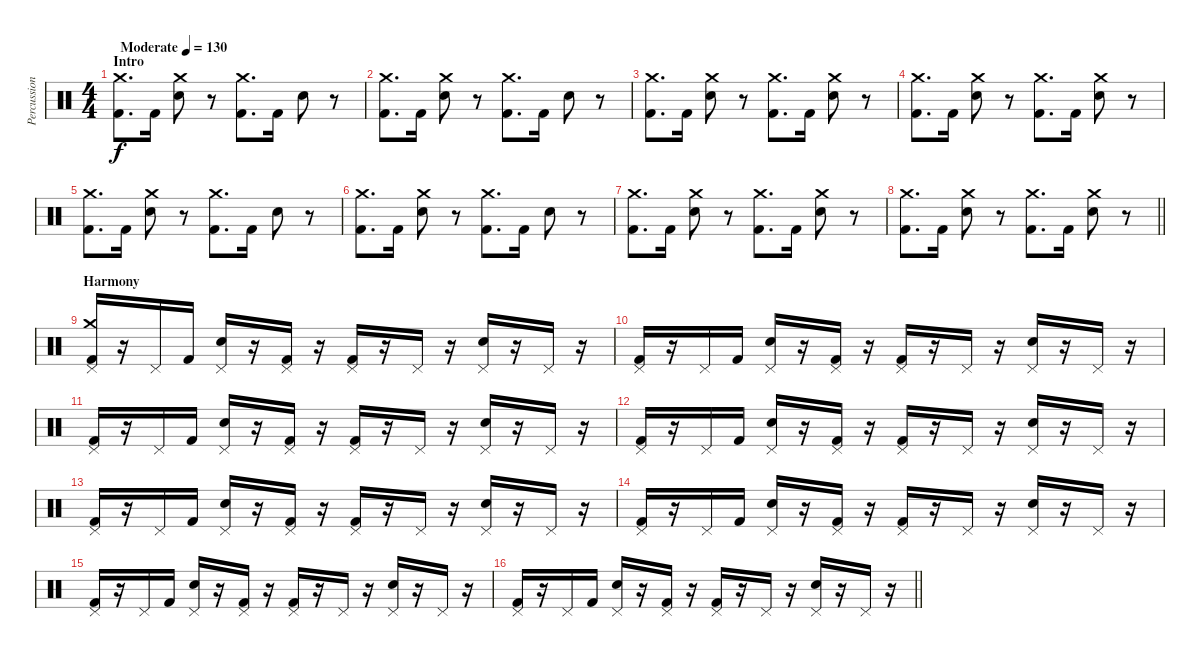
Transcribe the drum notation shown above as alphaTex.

\track ("Percussion" "Percussion") {instrument percussion}
\staff {score}
\articulation defaults
\ts (4 4)
\section ("" "Intro")
\tempo (130 "Moderate")
\clef neutral
\ks c
("Kick (hit) 2" "Crash medium (hit)").8{d dy f} "Kick (hit) 2".16 ("Electric Snare (hit)" "Crash medium (hit)").8 r.8 ("Kick (hit) 2" "Crash medium (hit)").8{d} "Kick (hit) 2".16 "Electric Snare (hit)".8 r.8 |
("Kick (hit) 2" "Crash medium (hit)").8{d} "Kick (hit) 2".16 ("Electric Snare (hit)" "Crash medium (hit)").8 r.8 ("Kick (hit) 2" "Crash medium (hit)").8{d} "Kick (hit) 2".16 "Electric Snare (hit)".8 r.8 |
("Kick (hit) 2" "Crash medium (hit)").8{d} "Kick (hit) 2".16 ("Electric Snare (hit)" "Crash medium (hit)").8 r.8 ("Kick (hit) 2" "Crash medium (hit)").8{d} "Kick (hit) 2".16 ("Electric Snare (hit)" "Crash medium (hit)").8 r.8 |
("Kick (hit) 2" "Crash medium (hit)").8{d} "Kick (hit) 2".16 ("Electric Snare (hit)" "Crash medium (hit)").8 r.8 ("Kick (hit) 2" "Crash medium (hit)").8{d} "Kick (hit) 2".16 ("Electric Snare (hit)" "Crash medium (hit)").8 r.8 |
("Kick (hit) 2" "Crash medium (hit)").8{d} "Kick (hit) 2".16 ("Electric Snare (hit)" "Crash medium (hit)").8 r.8 ("Kick (hit) 2" "Crash medium (hit)").8{d} "Kick (hit) 2".16 "Electric Snare (hit)".8 r.8 |
("Kick (hit) 2" "Crash medium (hit)").8{d} "Kick (hit) 2".16 ("Electric Snare (hit)" "Crash medium (hit)").8 r.8 ("Kick (hit) 2" "Crash medium (hit)").8{d} "Kick (hit) 2".16 "Electric Snare (hit)".8 r.8 |
("Kick (hit) 2" "Crash medium (hit)").8{d} "Kick (hit) 2".16 ("Electric Snare (hit)" "Crash medium (hit)").8 r.8 ("Kick (hit) 2" "Crash medium (hit)").8{d} "Kick (hit) 2".16 ("Electric Snare (hit)" "Crash medium (hit)").8 r.8 |
\barLineRight lightlight
("Kick (hit) 2" "Crash medium (hit)").8{d} "Kick (hit) 2".16 ("Electric Snare (hit)" "Crash medium (hit)").8 r.8 ("Kick (hit) 2" "Crash medium (hit)").8{d} "Kick (hit) 2".16 ("Electric Snare (hit)" "Crash medium (hit)").8 r.8 |
\section ("" "Harmony")
("Kick (hit) 2" "Pedal Hi-Hat (hit)" "Crash medium (hit)").16 r.16 "Pedal Hi-Hat (hit)".16 "Kick (hit) 2".16 ("Electric Snare (hit)" "Pedal Hi-Hat (hit)").16 r.16 ("Kick (hit) 2" "Pedal Hi-Hat (hit)").16 r.16 ("Kick (hit) 2" "Pedal Hi-Hat (hit)").16 r.16 "Pedal Hi-Hat (hit)".16 r.16 ("Electric Snare (hit)" "Pedal Hi-Hat (hit)").16 r.16 "Pedal Hi-Hat (hit)".16 r.16 |
("Kick (hit) 2" "Pedal Hi-Hat (hit)").16 r.16 "Pedal Hi-Hat (hit)".16 "Kick (hit) 2".16 ("Electric Snare (hit)" "Pedal Hi-Hat (hit)").16 r.16 ("Kick (hit) 2" "Pedal Hi-Hat (hit)").16 r.16 ("Kick (hit) 2" "Pedal Hi-Hat (hit)").16 r.16 "Pedal Hi-Hat (hit)".16 r.16 ("Electric Snare (hit)" "Pedal Hi-Hat (hit)").16 r.16 "Pedal Hi-Hat (hit)".16 r.16 |
("Kick (hit) 2" "Pedal Hi-Hat (hit)").16 r.16 "Pedal Hi-Hat (hit)".16 "Kick (hit) 2".16 ("Electric Snare (hit)" "Pedal Hi-Hat (hit)").16 r.16 ("Kick (hit) 2" "Pedal Hi-Hat (hit)").16 r.16 ("Kick (hit) 2" "Pedal Hi-Hat (hit)").16 r.16 "Pedal Hi-Hat (hit)".16 r.16 ("Electric Snare (hit)" "Pedal Hi-Hat (hit)").16 r.16 "Pedal Hi-Hat (hit)".16 r.16 |
("Kick (hit) 2" "Pedal Hi-Hat (hit)").16 r.16 "Pedal Hi-Hat (hit)".16 "Kick (hit) 2".16 ("Electric Snare (hit)" "Pedal Hi-Hat (hit)").16 r.16 ("Kick (hit) 2" "Pedal Hi-Hat (hit)").16 r.16 ("Kick (hit) 2" "Pedal Hi-Hat (hit)").16 r.16 "Pedal Hi-Hat (hit)".16 r.16 ("Electric Snare (hit)" "Pedal Hi-Hat (hit)").16 r.16 "Pedal Hi-Hat (hit)".16 r.16 |
("Kick (hit) 2" "Pedal Hi-Hat (hit)").16 r.16 "Pedal Hi-Hat (hit)".16 "Kick (hit) 2".16 ("Electric Snare (hit)" "Pedal Hi-Hat (hit)").16 r.16 ("Kick (hit) 2" "Pedal Hi-Hat (hit)").16 r.16 ("Kick (hit) 2" "Pedal Hi-Hat (hit)").16 r.16 "Pedal Hi-Hat (hit)".16 r.16 ("Electric Snare (hit)" "Pedal Hi-Hat (hit)").16 r.16 "Pedal Hi-Hat (hit)".16 r.16 |
("Kick (hit) 2" "Pedal Hi-Hat (hit)").16 r.16 "Pedal Hi-Hat (hit)".16 "Kick (hit) 2".16 ("Electric Snare (hit)" "Pedal Hi-Hat (hit)").16 r.16 ("Kick (hit) 2" "Pedal Hi-Hat (hit)").16 r.16 ("Kick (hit) 2" "Pedal Hi-Hat (hit)").16 r.16 "Pedal Hi-Hat (hit)".16 r.16 ("Electric Snare (hit)" "Pedal Hi-Hat (hit)").16 r.16 "Pedal Hi-Hat (hit)".16 r.16 |
("Kick (hit) 2" "Pedal Hi-Hat (hit)").16 r.16 "Pedal Hi-Hat (hit)".16 "Kick (hit) 2".16 ("Electric Snare (hit)" "Pedal Hi-Hat (hit)").16 r.16 ("Kick (hit) 2" "Pedal Hi-Hat (hit)").16 r.16 ("Kick (hit) 2" "Pedal Hi-Hat (hit)").16 r.16 "Pedal Hi-Hat (hit)".16 r.16 ("Electric Snare (hit)" "Pedal Hi-Hat (hit)").16 r.16 "Pedal Hi-Hat (hit)".16 r.16 |
\barLineRight lightlight
("Kick (hit) 2" "Pedal Hi-Hat (hit)").16 r.16 "Pedal Hi-Hat (hit)".16 "Kick (hit) 2".16 ("Electric Snare (hit)" "Pedal Hi-Hat (hit)").16 r.16 ("Kick (hit) 2" "Pedal Hi-Hat (hit)").16 r.16 ("Kick (hit) 2" "Pedal Hi-Hat (hit)").16 r.16 "Pedal Hi-Hat (hit)".16 r.16 ("Electric Snare (hit)" "Pedal Hi-Hat (hit)").16 r.16 "Pedal Hi-Hat (hit)".16 r.16
